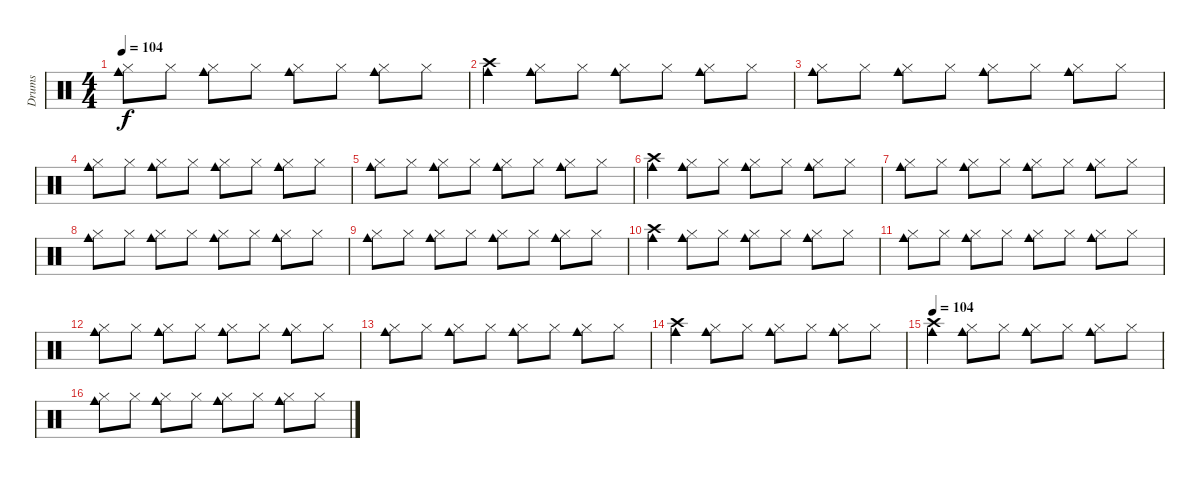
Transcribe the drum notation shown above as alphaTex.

\track ("Drums" "Drums") {instrument percussion}
\staff {score}
\articulation defaults
\ts (4 4)
\tempo 104
\clef neutral
\ks c
("Cowbell medium (hit)" "Hi-Hat (closed)").8{dy f} "Hi-Hat (closed)".8 ("Cowbell medium (hit)" "Hi-Hat (closed)").8 "Hi-Hat (closed)".8 ("Cowbell medium (hit)" "Hi-Hat (closed)").8 "Hi-Hat (closed)".8 ("Cowbell medium (hit)" "Hi-Hat (closed)").8 "Hi-Hat (closed)".8 |
("Cowbell medium (hit)" "Crash high (hit)").4 ("Cowbell medium (hit)" "Hi-Hat (closed)").8 "Hi-Hat (closed)".8 ("Cowbell medium (hit)" "Hi-Hat (closed)").8 "Hi-Hat (closed)".8 ("Cowbell medium (hit)" "Hi-Hat (closed)").8 "Hi-Hat (closed)".8 |
("Cowbell medium (hit)" "Hi-Hat (closed)").8 "Hi-Hat (closed)".8 ("Cowbell medium (hit)" "Hi-Hat (closed)").8 "Hi-Hat (closed)".8 ("Cowbell medium (hit)" "Hi-Hat (closed)").8 "Hi-Hat (closed)".8 ("Cowbell medium (hit)" "Hi-Hat (closed)").8 "Hi-Hat (closed)".8 |
("Cowbell medium (hit)" "Hi-Hat (closed)").8 "Hi-Hat (closed)".8 ("Cowbell medium (hit)" "Hi-Hat (closed)").8 "Hi-Hat (closed)".8 ("Cowbell medium (hit)" "Hi-Hat (closed)").8 "Hi-Hat (closed)".8 ("Cowbell medium (hit)" "Hi-Hat (closed)").8 "Hi-Hat (closed)".8 |
("Cowbell medium (hit)" "Hi-Hat (closed)").8 "Hi-Hat (closed)".8 ("Cowbell medium (hit)" "Hi-Hat (closed)").8 "Hi-Hat (closed)".8 ("Cowbell medium (hit)" "Hi-Hat (closed)").8 "Hi-Hat (closed)".8 ("Cowbell medium (hit)" "Hi-Hat (closed)").8 "Hi-Hat (closed)".8 |
("Cowbell medium (hit)" "Crash high (hit)").4 ("Cowbell medium (hit)" "Hi-Hat (closed)").8 "Hi-Hat (closed)".8 ("Cowbell medium (hit)" "Hi-Hat (closed)").8 "Hi-Hat (closed)".8 ("Cowbell medium (hit)" "Hi-Hat (closed)").8 "Hi-Hat (closed)".8 |
("Cowbell medium (hit)" "Hi-Hat (closed)").8 "Hi-Hat (closed)".8 ("Cowbell medium (hit)" "Hi-Hat (closed)").8 "Hi-Hat (closed)".8 ("Cowbell medium (hit)" "Hi-Hat (closed)").8 "Hi-Hat (closed)".8 ("Cowbell medium (hit)" "Hi-Hat (closed)").8 "Hi-Hat (closed)".8 |
("Cowbell medium (hit)" "Hi-Hat (closed)").8 "Hi-Hat (closed)".8 ("Cowbell medium (hit)" "Hi-Hat (closed)").8 "Hi-Hat (closed)".8 ("Cowbell medium (hit)" "Hi-Hat (closed)").8 "Hi-Hat (closed)".8 ("Cowbell medium (hit)" "Hi-Hat (closed)").8 "Hi-Hat (closed)".8 |
("Cowbell medium (hit)" "Hi-Hat (closed)").8 "Hi-Hat (closed)".8 ("Cowbell medium (hit)" "Hi-Hat (closed)").8 "Hi-Hat (closed)".8 ("Cowbell medium (hit)" "Hi-Hat (closed)").8 "Hi-Hat (closed)".8 ("Cowbell medium (hit)" "Hi-Hat (closed)").8 "Hi-Hat (closed)".8 |
("Cowbell medium (hit)" "Crash high (hit)").4 ("Cowbell medium (hit)" "Hi-Hat (closed)").8 "Hi-Hat (closed)".8 ("Cowbell medium (hit)" "Hi-Hat (closed)").8 "Hi-Hat (closed)".8 ("Cowbell medium (hit)" "Hi-Hat (closed)").8 "Hi-Hat (closed)".8 |
("Cowbell medium (hit)" "Hi-Hat (closed)").8 "Hi-Hat (closed)".8 ("Cowbell medium (hit)" "Hi-Hat (closed)").8 "Hi-Hat (closed)".8 ("Cowbell medium (hit)" "Hi-Hat (closed)").8 "Hi-Hat (closed)".8 ("Cowbell medium (hit)" "Hi-Hat (closed)").8 "Hi-Hat (closed)".8 |
("Cowbell medium (hit)" "Hi-Hat (closed)").8 "Hi-Hat (closed)".8 ("Cowbell medium (hit)" "Hi-Hat (closed)").8 "Hi-Hat (closed)".8 ("Cowbell medium (hit)" "Hi-Hat (closed)").8 "Hi-Hat (closed)".8 ("Cowbell medium (hit)" "Hi-Hat (closed)").8 "Hi-Hat (closed)".8 |
("Cowbell medium (hit)" "Hi-Hat (closed)").8 "Hi-Hat (closed)".8 ("Cowbell medium (hit)" "Hi-Hat (closed)").8 "Hi-Hat (closed)".8 ("Cowbell medium (hit)" "Hi-Hat (closed)").8 "Hi-Hat (closed)".8 ("Cowbell medium (hit)" "Hi-Hat (closed)").8 "Hi-Hat (closed)".8 |
("Cowbell medium (hit)" "Crash high (hit)").4 ("Cowbell medium (hit)" "Hi-Hat (closed)").8 "Hi-Hat (closed)".8 ("Cowbell medium (hit)" "Hi-Hat (closed)").8 "Hi-Hat (closed)".8 ("Cowbell medium (hit)" "Hi-Hat (closed)").8 "Hi-Hat (closed)".8 |
\tempo 104
("Cowbell medium (hit)" "Crash high (hit)").4 ("Cowbell medium (hit)" "Hi-Hat (closed)").8 "Hi-Hat (closed)".8 ("Cowbell medium (hit)" "Hi-Hat (closed)").8 "Hi-Hat (closed)".8 ("Cowbell medium (hit)" "Hi-Hat (closed)").8 "Hi-Hat (closed)".8 |
("Cowbell medium (hit)" "Hi-Hat (closed)").8 "Hi-Hat (closed)".8 ("Cowbell medium (hit)" "Hi-Hat (closed)").8 "Hi-Hat (closed)".8 ("Cowbell medium (hit)" "Hi-Hat (closed)").8 "Hi-Hat (closed)".8 ("Cowbell medium (hit)" "Hi-Hat (closed)").8 "Hi-Hat (closed)".8
